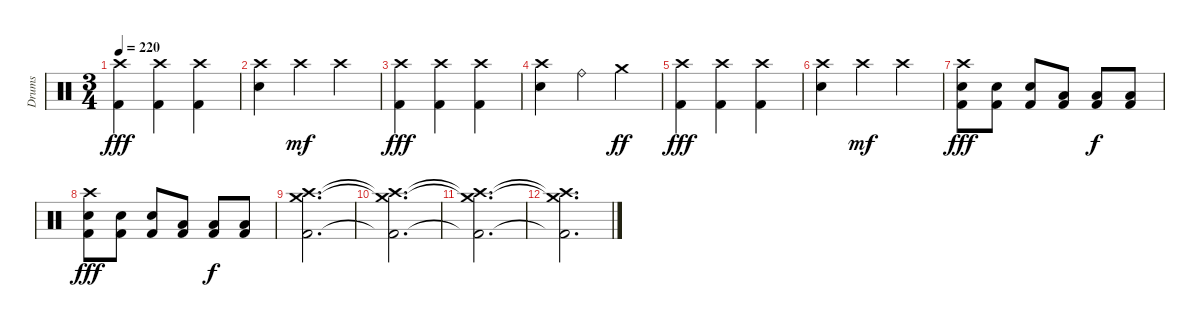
\track ("Drums" "Drums") {instrument percussion}
\staff {score}
\articulation defaults
\ts (3 4)
\tempo 220
\clef neutral
\ks c
("Crash high (hit)" "Kick (hit) 2").4{dy fff} ("Crash high (hit)" "Kick (hit) 2").4 ("Crash high (hit)" "Kick (hit) 2").4 |
("Crash high (hit)" "Electric Snare (hit)").4 "Crash high (hit)".4{dy mf} "Crash high (hit)".4 |
("Crash high (hit)" "Kick (hit) 2").4{dy fff} ("Crash high (hit)" "Kick (hit) 2").4 ("Crash high (hit)" "Kick (hit) 2").4 |
("Crash high (hit)" "Electric Snare (hit)").4 "Ride (bell)".4 "Crash medium (hit)".4{dy ff} |
("Crash high (hit)" "Kick (hit) 2").4{dy fff} ("Crash high (hit)" "Kick (hit) 2").4 ("Crash high (hit)" "Kick (hit) 2").4 |
("Crash high (hit)" "Electric Snare (hit)").4 "Crash high (hit)".4{dy mf} "Crash high (hit)".4 |
("Crash high (hit)" "Electric Snare (hit)" "Kick (hit) 2").8{dy fff} ("Electric Snare (hit)" "Kick (hit) 2").8 ("Electric Snare (hit)" "Kick (hit) 2").8 ("Low Floor Tom (hit)" "Kick (hit) 2").8 ("Low Floor Tom (hit)" "Kick (hit) 2").8{dy f} ("Low Floor Tom (hit)" "Kick (hit) 2").8 |
("Crash high (hit)" "Electric Snare (hit)" "Kick (hit) 2").8{dy fff} ("Electric Snare (hit)" "Kick (hit) 2").8 ("Electric Snare (hit)" "Kick (hit) 2").8 ("Low Floor Tom (hit)" "Kick (hit) 2").8 ("Low Floor Tom (hit)" "Kick (hit) 2").8{dy f} ("Low Floor Tom (hit)" "Kick (hit) 2").8 |
("Crash high (hit)" "Crash medium (hit)" "Kick (hit) 2").2{d} |
("Crash high (hit)"{t} "Crash medium (hit)"{t} "Kick (hit) 2"{t}).2{d} |
("Crash high (hit)"{t} "Crash medium (hit)"{t} "Kick (hit) 2"{t}).2{d} |
("Crash high (hit)"{t} "Crash medium (hit)"{t} "Kick (hit) 2"{t}).2{d}
